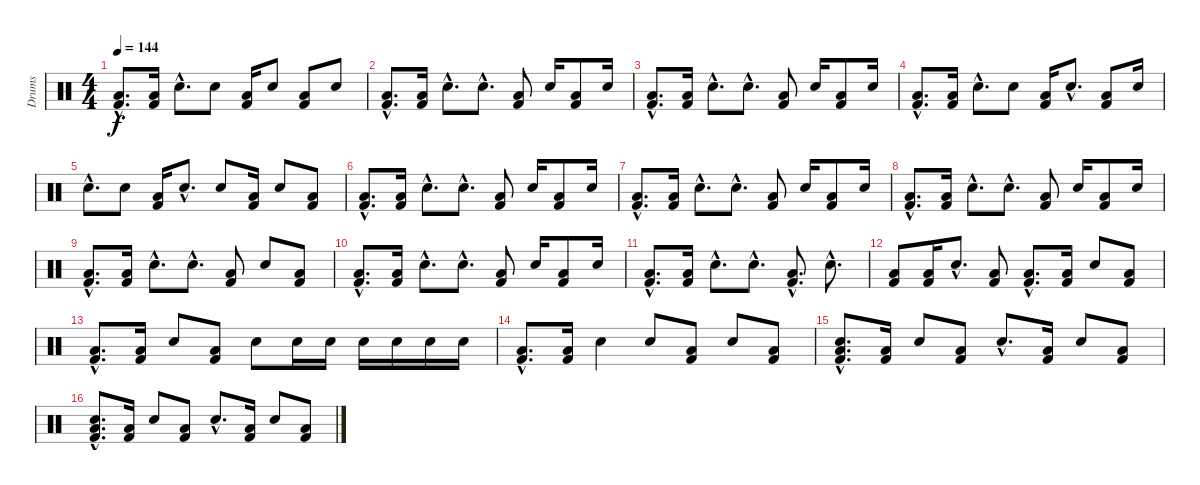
\track ("Drums" "Drums") {instrument percussion}
\staff {score}
\articulation defaults
\ts (4 4)
\tempo 144
\clef neutral
\ks c
("Low Floor Tom (hit)"{hac} "Kick (hit) 2"{hac}).8{d dy f} ("Low Floor Tom (hit)" "Kick (hit) 2").16 "Snare (hit) 2"{hac}.8{d} "Snare (hit) 2".8 ("Low Floor Tom (hit)" "Kick (hit) 2").16 "Snare (hit) 2".8 ("Low Floor Tom (hit)" "Kick (hit) 2").8 "Snare (hit) 2".8 |
("Low Floor Tom (hit)"{hac} "Kick (hit) 2"{hac}).8{d} ("Low Floor Tom (hit)" "Kick (hit) 2").16 "Snare (hit) 2"{hac}.8{d} "Snare (hit) 2"{hac}.8{d} ("Low Floor Tom (hit)" "Kick (hit) 2").8 "Snare (hit) 2".16 ("Low Floor Tom (hit)" "Kick (hit) 2").8 "Snare (hit) 2".16 |
("Low Floor Tom (hit)"{hac} "Kick (hit) 2"{hac}).8{d} ("Low Floor Tom (hit)" "Kick (hit) 2").16 "Snare (hit) 2"{hac}.8{d} "Snare (hit) 2"{hac}.8{d} ("Low Floor Tom (hit)" "Kick (hit) 2").8 "Snare (hit) 2".16 ("Low Floor Tom (hit)" "Kick (hit) 2").8 "Snare (hit) 2".16 |
("Low Floor Tom (hit)"{hac} "Kick (hit) 2"{hac}).8{d} ("Low Floor Tom (hit)" "Kick (hit) 2").16 "Snare (hit) 2"{hac}.8{d} "Snare (hit) 2".8 ("Low Floor Tom (hit)" "Kick (hit) 2").16 "Snare (hit) 2"{hac}.8{d} ("Low Floor Tom (hit)" "Kick (hit) 2").8 "Snare (hit) 2".16 |
"Snare (hit) 2"{hac}.8{d} "Snare (hit) 2".8 ("Low Floor Tom (hit)" "Kick (hit) 2").16 "Snare (hit) 2"{hac}.8{d} "Snare (hit) 2".8 ("Low Floor Tom (hit)" "Kick (hit) 2").16 "Snare (hit) 2".8 ("Low Floor Tom (hit)" "Kick (hit) 2").8 |
("Low Floor Tom (hit)"{hac} "Kick (hit) 2"{hac}).8{d} ("Low Floor Tom (hit)" "Kick (hit) 2").16 "Snare (hit) 2"{hac}.8{d} "Snare (hit) 2"{hac}.8{d} ("Low Floor Tom (hit)" "Kick (hit) 2").8 "Snare (hit) 2".16 ("Low Floor Tom (hit)" "Kick (hit) 2").8 "Snare (hit) 2".16 |
("Low Floor Tom (hit)"{hac} "Kick (hit) 2"{hac}).8{d} ("Low Floor Tom (hit)" "Kick (hit) 2").16 "Snare (hit) 2"{hac}.8{d} "Snare (hit) 2"{hac}.8{d} ("Low Floor Tom (hit)" "Kick (hit) 2").8 "Snare (hit) 2".16 ("Low Floor Tom (hit)" "Kick (hit) 2").8 "Snare (hit) 2".16 |
("Low Floor Tom (hit)"{hac} "Kick (hit) 2"{hac}).8{d} ("Low Floor Tom (hit)" "Kick (hit) 2").16 "Snare (hit) 2"{hac}.8{d} "Snare (hit) 2"{hac}.8{d} ("Low Floor Tom (hit)" "Kick (hit) 2").8 "Snare (hit) 2".16 ("Low Floor Tom (hit)" "Kick (hit) 2").8 "Snare (hit) 2".16 |
("Low Floor Tom (hit)"{hac} "Kick (hit) 2"{hac}).8{d} ("Low Floor Tom (hit)" "Kick (hit) 2").16 "Snare (hit) 2"{hac}.8{d} "Snare (hit) 2"{hac}.8{d} ("Low Floor Tom (hit)" "Kick (hit) 2").8 "Snare (hit) 2".8 ("Low Floor Tom (hit)" "Kick (hit) 2").8 |
("Low Floor Tom (hit)"{hac} "Kick (hit) 2"{hac}).8{d} ("Low Floor Tom (hit)" "Kick (hit) 2").16 "Snare (hit) 2"{hac}.8{d} "Snare (hit) 2"{hac}.8{d} ("Low Floor Tom (hit)" "Kick (hit) 2").8 "Snare (hit) 2".16 ("Low Floor Tom (hit)" "Kick (hit) 2").8 "Snare (hit) 2".16 |
("Low Floor Tom (hit)"{hac} "Kick (hit) 2"{hac}).8{d} ("Low Floor Tom (hit)" "Kick (hit) 2").16 "Snare (hit) 2"{hac}.8{d} "Snare (hit) 2"{hac}.8{d} ("Low Floor Tom (hit)"{hac} "Kick (hit) 2"{hac}).8{d} "Snare (hit) 2"{hac}.8{d} |
("Low Floor Tom (hit)" "Kick (hit) 2").8 ("Low Floor Tom (hit)" "Kick (hit) 2").16 "Snare (hit) 2"{hac}.8{d} ("Low Floor Tom (hit)" "Kick (hit) 2").8 ("Low Floor Tom (hit)"{hac} "Kick (hit) 2"{hac}).8{d} ("Low Floor Tom (hit)" "Kick (hit) 2").16 "Snare (hit) 2".8 ("Low Floor Tom (hit)" "Kick (hit) 2").8 |
("Low Floor Tom (hit)"{hac} "Kick (hit) 2"{hac}).8{d} ("Low Floor Tom (hit)" "Kick (hit) 2").16 "Snare (hit) 2".8 ("Low Floor Tom (hit)" "Kick (hit) 2").8 "Snare (hit) 2".8 "Snare (hit) 2".16 "Snare (hit) 2".16 "Snare (hit) 2".16 "Snare (hit) 2".16 "Snare (hit) 2".16 "Snare (hit) 2".16 |
("Low Floor Tom (hit)"{hac} "Kick (hit) 2"{hac}).8{d} ("Low Floor Tom (hit)" "Kick (hit) 2").16 "Snare (hit) 2".4 "Snare (hit) 2".8 ("Low Floor Tom (hit)" "Kick (hit) 2").8 "Snare (hit) 2".8 ("Low Floor Tom (hit)" "Kick (hit) 2").8 |
("Snare (hit) 2"{hac} "Low Floor Tom (hit)"{hac} "Kick (hit) 2"{hac}).8{d} ("Low Floor Tom (hit)" "Kick (hit) 2").16 "Snare (hit) 2".8 ("Low Floor Tom (hit)" "Kick (hit) 2").8 "Snare (hit) 2"{hac}.8{d} ("Low Floor Tom (hit)" "Kick (hit) 2").16 "Snare (hit) 2".8 ("Low Floor Tom (hit)" "Kick (hit) 2").8 |
("Snare (hit) 2"{hac} "Low Floor Tom (hit)"{hac} "Kick (hit) 2"{hac}).8{d} ("Low Floor Tom (hit)" "Kick (hit) 2").16 "Snare (hit) 2".8 ("Low Floor Tom (hit)" "Kick (hit) 2").8 "Snare (hit) 2"{hac}.8{d} ("Low Floor Tom (hit)" "Kick (hit) 2").16 "Snare (hit) 2".8 ("Low Floor Tom (hit)" "Kick (hit) 2").8
